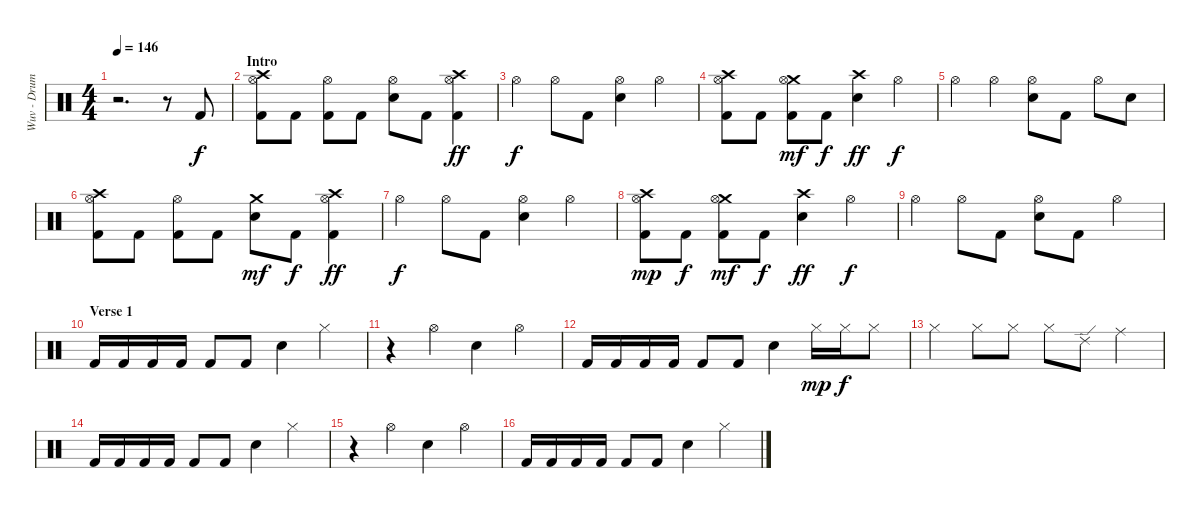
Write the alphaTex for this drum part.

\track ("Wuv - Drums" "Wuv - Drum") {instrument percussion}
\staff {score}
\articulation defaults
\ts (4 4)
\tempo 146
\clef neutral
\ks c
r.2{d dy f} r.8 "Kick (hit) 2".8 |
\section ("" "Intro")
("Crash high (hit)" "Hi-Hat (open)" "Kick (hit) 2").8 "Kick (hit) 2".8 ("Hi-Hat (open)" "Kick (hit) 2").8 "Kick (hit) 2".8 ("Hi-Hat (open)" "Electric Snare (hit)").8 "Kick (hit) 2".8 ("Crash high (hit)" "Hi-Hat (open)" "Kick (hit) 2").4{dy ff} |
"Hi-Hat (open)".4{dy f} "Hi-Hat (open)".8 "Kick (hit) 2".8 ("Hi-Hat (open)" "Electric Snare (hit)").4 "Hi-Hat (open)".4 |
("Crash high (hit)" "Hi-Hat (open)" "Kick (hit) 2").8 "Kick (hit) 2".8 ("Crash medium (hit)" "Hi-Hat (open)" "Kick (hit) 2").8{dy mf} "Kick (hit) 2".8{dy f} ("Crash high (hit)" "Electric Snare (hit)").4{dy ff} "Hi-Hat (open)".4{dy f} |
"Hi-Hat (open)".4 "Hi-Hat (open)".4 ("Hi-Hat (open)" "Electric Snare (hit)").8 "Kick (hit) 2".8 "Hi-Hat (open)".8 "Electric Snare (hit)".8 |
("Crash high (hit)" "Hi-Hat (open)" "Kick (hit) 2").8 "Kick (hit) 2".8 ("Hi-Hat (open)" "Kick (hit) 2").8 "Kick (hit) 2".8 ("Crash medium (hit)" "Electric Snare (hit)").8{dy mf} "Kick (hit) 2".8{dy f} ("Crash high (hit)" "Hi-Hat (open)" "Kick (hit) 2").4{dy ff} |
"Hi-Hat (open)".4{dy f} "Hi-Hat (open)".8 "Kick (hit) 2".8 ("Hi-Hat (open)" "Electric Snare (hit)").4 "Hi-Hat (open)".4 |
("Crash high (hit)" "Hi-Hat (open)" "Kick (hit) 2").8{dy mp} "Kick (hit) 2".8{dy f} ("Crash medium (hit)" "Hi-Hat (open)" "Kick (hit) 2").8{dy mf} "Kick (hit) 2".8{dy f} ("Crash high (hit)" "Electric Snare (hit)").4{dy ff} "Hi-Hat (open)".4{dy f} |
"Hi-Hat (open)".4 "Hi-Hat (open)".8 "Kick (hit) 2".8 ("Hi-Hat (open)" "Electric Snare (hit)").8 "Kick (hit) 2".8 "Hi-Hat (open)".4 |
\section ("" "Verse 1")
"Kick (hit) 2".16 "Kick (hit) 2".16 "Kick (hit) 2".16 "Kick (hit) 2".16 "Kick (hit) 2".8 "Kick (hit) 2".8 "Electric Snare (hit)".4 "Hi-Hat (closed)".4 |
r.4 "Hi-Hat (open)".4 "Electric Snare (hit)".4 "Hi-Hat (open)".4 |
"Kick (hit) 2".16 "Kick (hit) 2".16 "Kick (hit) 2".16 "Kick (hit) 2".16 "Kick (hit) 2".8 "Kick (hit) 2".8 "Electric Snare (hit)".4 "Hi-Hat (closed)".16{dy mp} "Hi-Hat (closed)".16{dy f} "Hi-Hat (closed)".8 |
"Hi-Hat (closed)".4 "Hi-Hat (closed)".8 "Hi-Hat (closed)".8 "Hi-Hat (closed)".8 "Ride (edge) 2".8 "Ride (middle)".4 |
"Kick (hit) 2".16 "Kick (hit) 2".16 "Kick (hit) 2".16 "Kick (hit) 2".16 "Kick (hit) 2".8 "Kick (hit) 2".8 "Electric Snare (hit)".4 "Hi-Hat (closed)".4 |
r.4 "Hi-Hat (open)".4 "Electric Snare (hit)".4 "Hi-Hat (open)".4 |
"Kick (hit) 2".16 "Kick (hit) 2".16 "Kick (hit) 2".16 "Kick (hit) 2".16 "Kick (hit) 2".8 "Kick (hit) 2".8 "Electric Snare (hit)".4 "Hi-Hat (closed)".4
